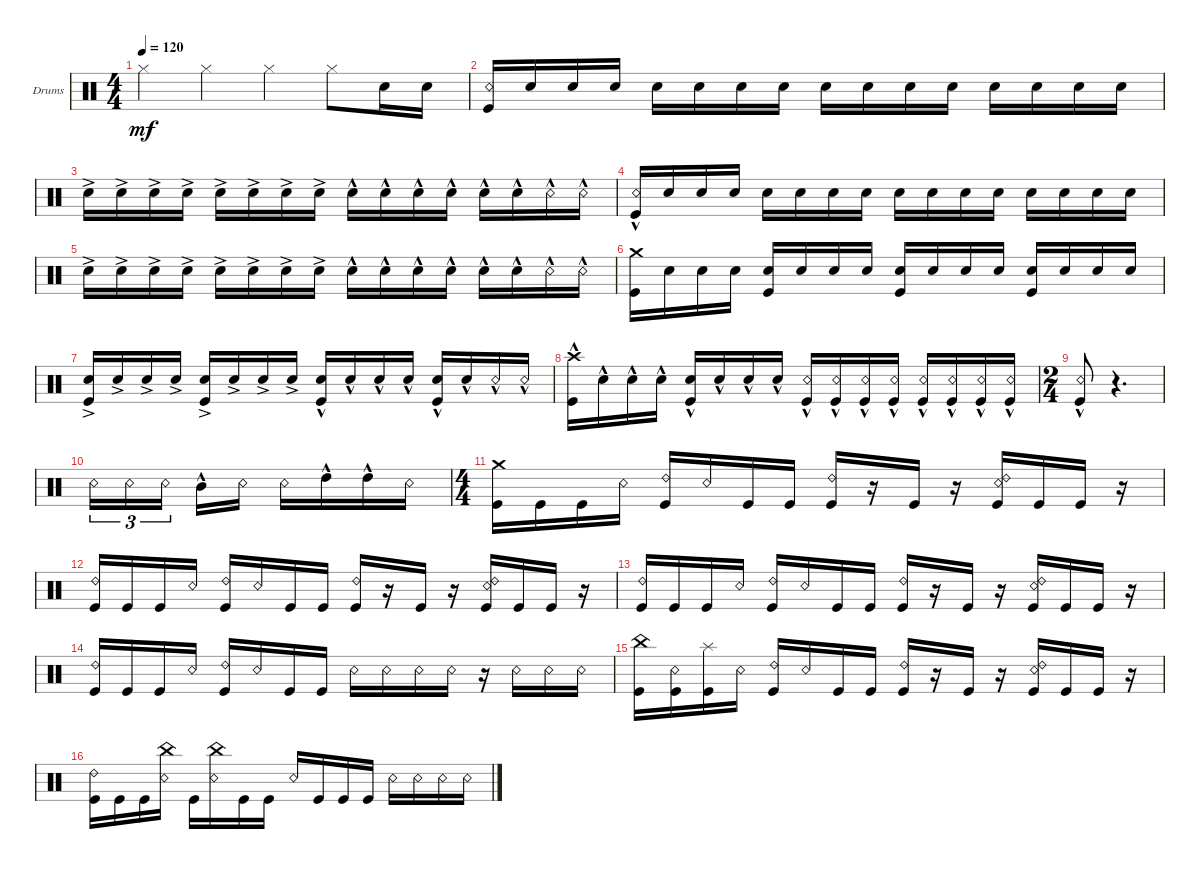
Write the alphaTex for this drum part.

\defaultSystemsLayout 4
\bracketExtendMode groupsimilarinstruments
\firstSystemTrackNameOrientation horizontal
\otherSystemsTrackNameOrientation horizontal
\track ("Drumkit" "Drums") {instrument percussion}
\staff {score}
\articulation defaults
\ts (4 4)
\scale
0.245206
\tempo 120
\accidentals auto
\clef neutral
\ottava regular
\simile none
\ks c "Hi-Hat (closed)".4{dy mf} "Hi-Hat (closed)".4 "Hi-Hat (closed)".4 "Hi-Hat (closed)".8 "Snare (hit) 2".16 "Snare (hit) 2".16
|
\scale
0.374026 ("Snare (rim shot)" "Kick (hit)").16 "Snare (hit) 2".16 "Snare (hit) 2".16 "Snare (hit) 2".16 "Snare (hit) 2".16 "Snare (hit) 2".16 "Snare (hit) 2".16 "Snare (hit) 2".16 "Snare (hit) 2".16 "Snare (hit) 2".16 "Snare (hit) 2".16 "Snare (hit) 2".16 "Snare (hit) 2".16 "Snare (hit) 2".16 "Snare (hit) 2".16 "Snare (hit) 2".16 |
\scale
0.380069 "Snare (hit) 2"{ac}.16 "Snare (hit) 2"{ac}.16 "Snare (hit) 2"{ac}.16 "Snare (hit) 2"{ac}.16 "Snare (hit) 2"{ac}.16 "Snare (hit) 2"{ac}.16 "Snare (hit) 2"{ac}.16 "Snare (hit) 2"{ac}.16 "Snare (hit) 2"{hac}.16 "Snare (hit) 2"{hac}.16 "Snare (hit) 2"{hac}.16 "Snare (hit) 2"{hac}.16 "Snare (hit) 2"{hac}.16 "Snare (hit) 2"{hac}.16 "Snare (rim shot)"{hac}.16 "Snare (rim shot)"{hac}.16 |
("Snare (rim shot)"{hac} "Kick (hit)").16 "Snare (hit) 2".16 "Snare (hit) 2".16 "Snare (hit) 2".16 "Snare (hit) 2".16 "Snare (hit) 2".16 "Snare (hit) 2".16 "Snare (hit) 2".16 "Snare (hit) 2".16 "Snare (hit) 2".16 "Snare (hit) 2".16 "Snare (hit) 2".16 "Snare (hit) 2".16 "Snare (hit) 2".16 "Snare (hit) 2".16 "Snare (hit) 2".16 |
"Snare (hit) 2"{ac}.16 "Snare (hit) 2"{ac}.16 "Snare (hit) 2"{ac}.16 "Snare (hit) 2"{ac}.16 "Snare (hit) 2"{ac}.16 "Snare (hit) 2"{ac}.16 "Snare (hit) 2"{ac}.16 "Snare (hit) 2"{ac}.16 "Snare (hit) 2"{hac}.16 "Snare (hit) 2"{hac}.16 "Snare (hit) 2"{hac}.16 "Snare (hit) 2"{hac}.16 "Snare (hit) 2"{hac}.16 "Snare (hit) 2"{hac}.16 "Snare (rim shot)"{hac}.16 "Snare (rim shot)"{hac}.16 |
("Kick (hit)" "Crash medium (hit)").16 "Snare (hit) 2".16 "Snare (hit) 2".16 "Snare (hit) 2".16 ("Snare (hit) 2" "Kick (hit)").16 "Snare (hit) 2".16 "Snare (hit) 2".16 "Snare (hit) 2".16 ("Snare (hit) 2" "Kick (hit)").16 "Snare (hit) 2".16 "Snare (hit) 2".16 "Snare (hit) 2".16 ("Snare (hit) 2" "Kick (hit)").16 "Snare (hit) 2".16 "Snare (hit) 2".16 "Snare (hit) 2".16 |
("Snare (hit) 2"{ac} "Kick (hit)").16 "Snare (hit) 2"{ac}.16 "Snare (hit) 2"{ac}.16 "Snare (hit) 2"{ac}.16 ("Snare (hit) 2"{ac} "Kick (hit)").16 "Snare (hit) 2"{ac}.16 "Snare (hit) 2"{ac}.16 "Snare (hit) 2"{ac}.16 ("Snare (hit) 2"{hac} "Kick (hit)").16 "Snare (hit) 2"{hac}.16 "Snare (hit) 2"{hac}.16 "Snare (hit) 2"{hac}.16 ("Snare (hit) 2"{hac} "Kick (hit)").16 "Snare (hit) 2"{hac}.16 "Snare (rim shot)"{hac}.16 "Snare (rim shot)"{hac}.16 |
("Kick (hit)"{hac} "Crash high (hit)").16 "Snare (hit) 2"{hac}.16 "Snare (hit) 2"{hac}.16 "Snare (hit) 2"{hac}.16 ("Snare (hit) 2"{hac} "Kick (hit)"{hac}).16 "Snare (hit) 2"{hac}.16 "Snare (hit) 2"{hac}.16 "Snare (hit) 2"{hac}.16 ("Snare (rim shot)"{hac} "Kick (hit)"{hac}).16 ("Snare (rim shot)"{hac} "Kick (hit)").16 ("Snare (rim shot)"{hac} "Kick (hit)").16 ("Snare (rim shot)"{hac} "Kick (hit)").16 ("Snare (rim shot)"{hac} "Kick (hit)"{hac}).16 ("Snare (rim shot)"{hac} "Kick (hit)").16 ("Snare (rim shot)"{hac} "Kick (hit)").16 ("Snare (rim shot)"{hac} "Kick (hit)").16 |
\ts (2 4)
("Snare (rim shot)"{hac} "Kick (hit)").8 r.4{d} |
"Snare (rim shot)".16{tu (3 2)} "Snare (rim shot)".16{tu (3 2)} "Snare (rim shot)".16{tu (3 2)} "Mid Tom (hit)"{hac}.16 "Snare (rim shot)".16 "Snare (rim shot)".16 "High Tom (hit)"{hac}.16 "High Tom (hit)"{hac}.16 "Snare (rim shot)".16 |
\ts (4 4)
("Kick (hit)" "Crash medium (hit)").16 "Kick (hit)".16 "Kick (hit)".16 "Snare (rim shot)".16 ("Kick (hit)" "Ride (bell) 2").16 "Snare (rim shot)".16 "Kick (hit)".16 "Kick (hit)".16 ("Kick (hit)" "Ride (bell) 2").16 r.16 "Kick (hit)".16 r.16 ("Kick (hit)" "Ride (bell) 2" "Snare (rim shot)").16 "Kick (hit)".16 "Kick (hit)".16 r.16 |
("Kick (hit)" "Ride (bell) 2").16 "Kick (hit)".16 "Kick (hit)".16 "Snare (rim shot)".16 ("Kick (hit)" "Ride (bell) 2").16 "Snare (rim shot)".16 "Kick (hit)".16 "Kick (hit)".16 ("Kick (hit)" "Ride (bell) 2").16 r.16 "Kick (hit)".16 r.16 ("Kick (hit)" "Ride (bell) 2" "Snare (rim shot)").16 "Kick (hit)".16 "Kick (hit)".16 r.16 |
("Kick (hit)" "Ride (bell) 2").16 "Kick (hit)".16 "Kick (hit)".16 "Snare (rim shot)".16 ("Kick (hit)" "Ride (bell) 2").16 "Snare (rim shot)".16 "Kick (hit)".16 "Kick (hit)".16 ("Kick (hit)" "Ride (bell) 2").16 r.16 "Kick (hit)".16 r.16 ("Kick (hit)" "Ride (bell) 2" "Snare (rim shot)").16 "Kick (hit)".16 "Kick (hit)".16 r.16 |
("Kick (hit)" "Ride (bell) 2").16 "Kick (hit)".16 "Kick (hit)".16 "Snare (rim shot)".16 ("Kick (hit)" "Ride (bell) 2").16 "Snare (rim shot)".16 "Kick (hit)".16 "Kick (hit)".16 "Snare (rim shot)".16 "Snare (rim shot)".16 "Snare (rim shot)".16 "Snare (rim shot)".16 r.16 "Snare (rim shot)".16 "Snare (rim shot)".16 "Snare (rim shot)".16 |
("Kick (hit)" "China (hit)").16 ("Kick (hit)" "Snare (rim shot)").16 ("Kick (hit)" "Splash (hit)").16 "Snare (rim shot)".16 ("Kick (hit)" "Ride (bell) 2").16 "Snare (rim shot)".16 "Kick (hit)".16 "Kick (hit)".16 ("Kick (hit)" "Ride (bell) 2").16 r.16 "Kick (hit)".16 r.16 ("Kick (hit)" "Snare (rim shot)" "Ride (bell) 2").16 "Kick (hit)".16 "Kick (hit)".16 r.16 |
("Kick (hit)" "Ride (bell) 2").16 "Kick (hit)".16 "Kick (hit)".16 ("Snare (rim shot)" "China (hit)").16 "Kick (hit)".16 ("Snare (rim shot)" "China (hit)").16 "Kick (hit)".16 "Kick (hit)".16 "Snare (rim shot)".16 "Kick (hit)".16 "Kick (hit)".16 "Kick (hit)".16 "Snare (rim shot)".16 "Snare (rim shot)".16 "Snare (rim shot)".16 "Snare (rim shot)".16
